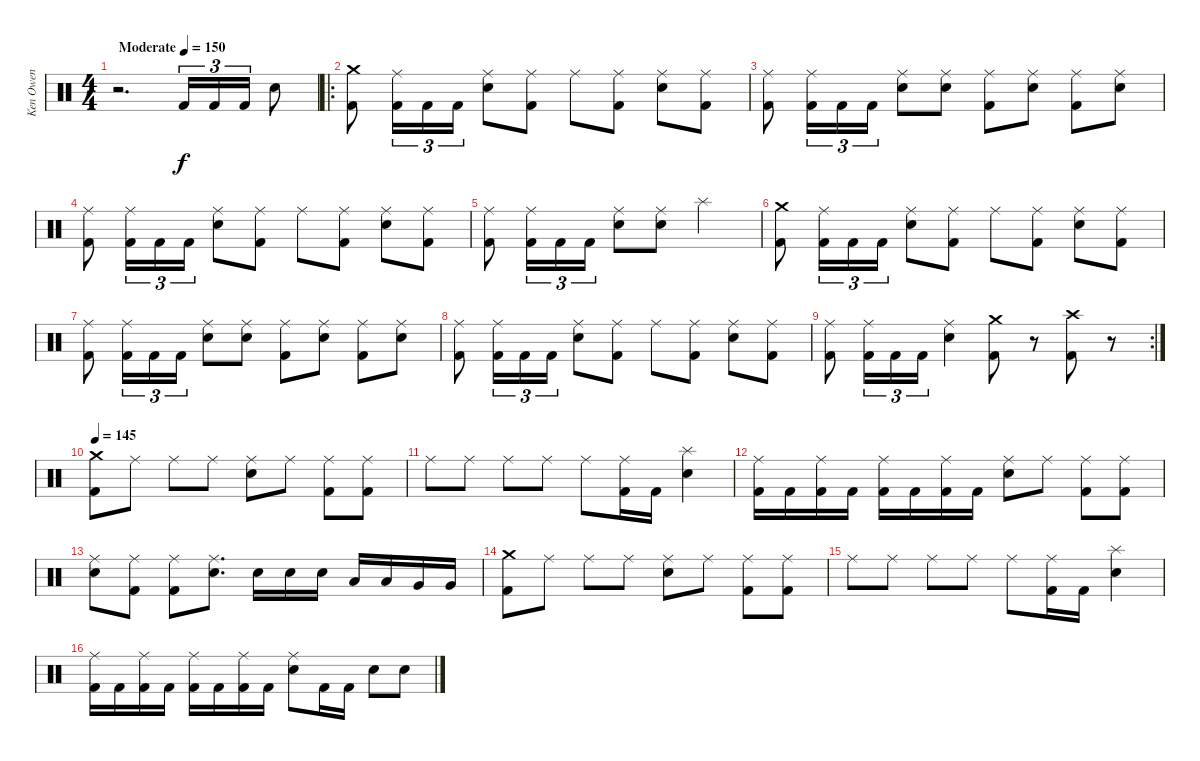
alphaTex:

\track ("Ken Owen" "Ken Owen") {instrument percussion}
\staff {score}
\articulation defaults
\ts (4 4)
\tempo (150 "Moderate")
\clef neutral
\ks c
r.2{d dy f} "Kick (hit) 2".16{tu (3 2)} "Kick (hit) 2".16{tu (3 2)} "Kick (hit) 2".16{tu (3 2)} "Snare (hit) 2".8 |
\ro
("Crash medium (hit)" "Kick (hit) 2").8 ("Ride (middle)" "Kick (hit) 2").16{tu (3 2)} "Kick (hit) 2".16{tu (3 2)} "Kick (hit) 2".16{tu (3 2)} ("Ride (middle)" "Snare (hit) 2").8 ("Ride (middle)" "Kick (hit) 2").8 "Ride (middle)".8 ("Ride (middle)" "Kick (hit) 2").8 ("Ride (middle)" "Snare (hit) 2").8 ("Ride (middle)" "Kick (hit) 2").8 |
("Ride (middle)" "Kick (hit) 2").8 ("Ride (middle)" "Kick (hit) 2").16{tu (3 2)} "Kick (hit) 2".16{tu (3 2)} "Kick (hit) 2".16{tu (3 2)} ("Ride (middle)" "Snare (hit) 2").8 ("Ride (middle)" "Snare (hit) 2").8 ("Ride (middle)" "Kick (hit) 2").8 ("Ride (middle)" "Snare (hit) 2").8 ("Ride (middle)" "Kick (hit) 2").8 ("Ride (middle)" "Snare (hit) 2").8 |
("Ride (middle)" "Kick (hit) 2").8 ("Ride (middle)" "Kick (hit) 2").16{tu (3 2)} "Kick (hit) 2".16{tu (3 2)} "Kick (hit) 2".16{tu (3 2)} ("Ride (middle)" "Snare (hit) 2").8 ("Ride (middle)" "Kick (hit) 2").8 "Ride (middle)".8 ("Ride (middle)" "Kick (hit) 2").8 ("Ride (middle)" "Snare (hit) 2").8 ("Ride (middle)" "Kick (hit) 2").8 |
("Ride (middle)" "Kick (hit) 2").8 ("Ride (middle)" "Kick (hit) 2").16{tu (3 2)} "Kick (hit) 2".16{tu (3 2)} "Kick (hit) 2".16{tu (3 2)} ("Ride (middle)" "Snare (hit) 2").8 ("Ride (middle)" "Snare (hit) 2").8 "Splash (hit)".2 |
("Crash medium (hit)" "Kick (hit) 2").8 ("Ride (middle)" "Kick (hit) 2").16{tu (3 2)} "Kick (hit) 2".16{tu (3 2)} "Kick (hit) 2".16{tu (3 2)} ("Ride (middle)" "Snare (hit) 2").8 ("Ride (middle)" "Kick (hit) 2").8 "Ride (middle)".8 ("Ride (middle)" "Kick (hit) 2").8 ("Ride (middle)" "Snare (hit) 2").8 ("Ride (middle)" "Kick (hit) 2").8 |
("Ride (middle)" "Kick (hit) 2").8 ("Ride (middle)" "Kick (hit) 2").16{tu (3 2)} "Kick (hit) 2".16{tu (3 2)} "Kick (hit) 2".16{tu (3 2)} ("Ride (middle)" "Snare (hit) 2").8 ("Ride (middle)" "Snare (hit) 2").8 ("Ride (middle)" "Kick (hit) 2").8 ("Ride (middle)" "Snare (hit) 2").8 ("Ride (middle)" "Kick (hit) 2").8 ("Ride (middle)" "Snare (hit) 2").8 |
("Ride (middle)" "Kick (hit) 2").8 ("Ride (middle)" "Kick (hit) 2").16{tu (3 2)} "Kick (hit) 2".16{tu (3 2)} "Kick (hit) 2".16{tu (3 2)} ("Ride (middle)" "Snare (hit) 2").8 ("Ride (middle)" "Kick (hit) 2").8 "Ride (middle)".8 ("Ride (middle)" "Kick (hit) 2").8 ("Ride (middle)" "Snare (hit) 2").8 ("Ride (middle)" "Kick (hit) 2").8 |
\rc 2
("Ride (middle)" "Kick (hit) 2").8 ("Ride (middle)" "Kick (hit) 2").16{tu (3 2)} "Kick (hit) 2".16{tu (3 2)} "Kick (hit) 2".16{tu (3 2)} ("Ride (middle)" "Snare (hit) 2").4 ("Crash medium (hit)" "Kick (hit) 2").8 r.8 ("Crash high (hit)" "Kick (hit) 2").8 r.8 |
\tempo 145
("Crash medium (hit)" "Kick (hit) 2").8 "Ride (middle)".8 "Ride (middle)".8 "Ride (middle)".8 ("Ride (middle)" "Snare (hit) 2").8 "Ride (middle)".8 ("Ride (middle)" "Kick (hit) 2").8 ("Ride (middle)" "Kick (hit) 2").8 |
"Ride (middle)".8 "Ride (middle)".8 "Ride (middle)".8 "Ride (middle)".8 "Ride (middle)".8 ("Ride (middle)" "Kick (hit) 2").16 "Kick (hit) 2".16 ("Splash (hit)" "Snare (hit) 2").4 |
("Ride (middle)" "Kick (hit) 2").16 "Kick (hit) 2".16 ("Ride (middle)" "Kick (hit) 2").16 "Kick (hit) 2".16 ("Ride (middle)" "Kick (hit) 2").16 "Kick (hit) 2".16 ("Ride (middle)" "Kick (hit) 2").16 "Kick (hit) 2".16 ("Ride (middle)" "Snare (hit) 2").8 "Ride (middle)".8 ("Ride (middle)" "Kick (hit) 2").8 ("Ride (middle)" "Kick (hit) 2").8 |
("Ride (middle)" "Snare (hit) 2").8 ("Ride (middle)" "Kick (hit) 2").8 ("Ride (middle)" "Kick (hit) 2").8 ("Ride (middle)" "Snare (hit) 2").8{d} "Snare (hit) 2".16 "Snare (hit) 2".16 "Snare (hit) 2".16 "Low Tom (hit)".16 "Low Tom (hit)".16 "Very Low Tom (hit)".16 "Very Low Tom (hit)".16 |
("Crash medium (hit)" "Kick (hit) 2").8 "Ride (middle)".8 "Ride (middle)".8 "Ride (middle)".8 ("Ride (middle)" "Snare (hit) 2").8 "Ride (middle)".8 ("Ride (middle)" "Kick (hit) 2").8 ("Ride (middle)" "Kick (hit) 2").8 |
"Ride (middle)".8 "Ride (middle)".8 "Ride (middle)".8 "Ride (middle)".8 "Ride (middle)".8 ("Ride (middle)" "Kick (hit) 2").16 "Kick (hit) 2".16 ("Splash (hit)" "Snare (hit) 2").4 |
("Ride (middle)" "Kick (hit) 2").16 "Kick (hit) 2".16 ("Ride (middle)" "Kick (hit) 2").16 "Kick (hit) 2".16 ("Ride (middle)" "Kick (hit) 2").16 "Kick (hit) 2".16 ("Ride (middle)" "Kick (hit) 2").16 "Kick (hit) 2".16 ("Ride (middle)" "Snare (hit) 2").8 "Kick (hit) 2".16 "Kick (hit) 2".16 "Snare (hit) 2".8 "Snare (hit) 2".8
